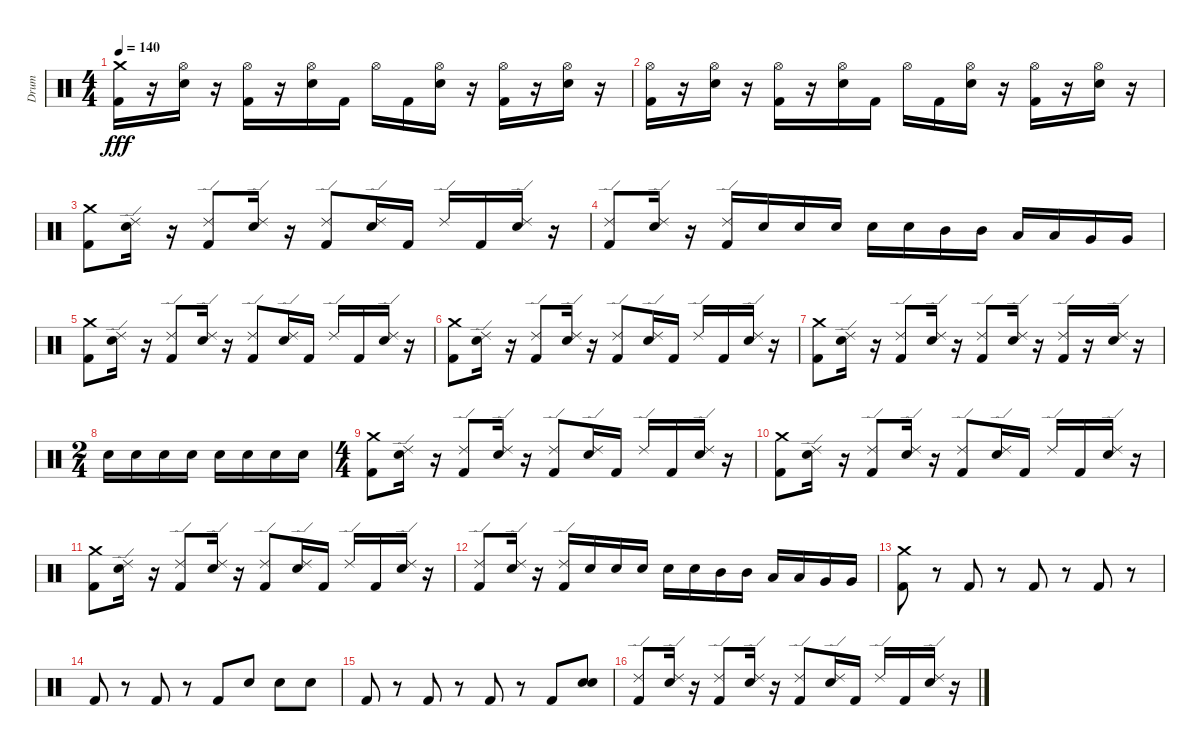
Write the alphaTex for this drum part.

\track ("Drum" "Drum") {instrument percussion}
\staff {score}
\articulation defaults
\ts (4 4)
\tempo 140
\clef neutral
\ks c
("Kick (hit) 2" "Crash medium (hit)").16{dy fff} r.16 ("Hi-Hat (open)" "Snare (hit) 2").16 r.16 ("Hi-Hat (open)" "Kick (hit) 2").16 r.16 ("Hi-Hat (open)" "Snare (hit) 2").16 "Kick (hit) 2".16 "Hi-Hat (open)".16 "Kick (hit) 2".16 ("Hi-Hat (open)" "Snare (hit) 2").16 r.16 ("Hi-Hat (open)" "Kick (hit) 2").16 r.16 ("Hi-Hat (open)" "Snare (hit) 2").16 r.16 |
("Hi-Hat (open)" "Kick (hit) 2").16 r.16 ("Hi-Hat (open)" "Snare (hit) 2").16 r.16 ("Hi-Hat (open)" "Kick (hit) 2").16 r.16 ("Hi-Hat (open)" "Snare (hit) 2").16 "Kick (hit) 2".16 "Hi-Hat (open)".16 "Kick (hit) 2".16 ("Hi-Hat (open)" "Snare (hit) 2").16 r.16 ("Hi-Hat (open)" "Kick (hit) 2").16 r.16 ("Hi-Hat (open)" "Snare (hit) 2").16 r.16 |
("Kick (hit) 2" "Crash medium (hit)").8 ("Snare (hit) 2" "Ride (edge) 2").16 r.16 ("Kick (hit) 2" "Ride (edge) 2").8 ("Snare (hit) 2" "Ride (edge) 2").16 r.16 ("Kick (hit) 2" "Ride (edge) 2").8 ("Snare (hit) 2" "Ride (edge) 2").16 "Kick (hit) 2".16 "Ride (edge) 2".16 "Kick (hit) 2".16 ("Snare (hit) 2" "Ride (edge) 2").16 r.16 |
("Kick (hit) 2" "Ride (edge) 2").8 ("Snare (hit) 2" "Ride (edge) 2").16 r.16 ("Kick (hit) 2" "Ride (edge) 2").16 "Snare (hit) 2".16 "Snare (hit) 2".16 "Snare (hit) 2".16 "Snare (hit) 2".16 "Snare (hit) 2".16 "Mid Tom (hit)".16 "Mid Tom (hit)".16 "Low Tom (hit)".16 "Low Tom (hit)".16 "Very Low Tom (hit)".16 "Very Low Tom (hit)".16 |
("Kick (hit) 2" "Crash medium (hit)").8 ("Snare (hit) 2" "Ride (edge) 2").16 r.16 ("Kick (hit) 2" "Ride (edge) 2").8 ("Snare (hit) 2" "Ride (edge) 2").16 r.16 ("Kick (hit) 2" "Ride (edge) 2").8 ("Snare (hit) 2" "Ride (edge) 2").16 "Kick (hit) 2".16 "Ride (edge) 2".16 "Kick (hit) 2".16 ("Snare (hit) 2" "Ride (edge) 2").16 r.16 |
("Kick (hit) 2" "Crash medium (hit)").8 ("Snare (hit) 2" "Ride (edge) 2").16 r.16 ("Kick (hit) 2" "Ride (edge) 2").8 ("Snare (hit) 2" "Ride (edge) 2").16 r.16 ("Kick (hit) 2" "Ride (edge) 2").8 ("Snare (hit) 2" "Ride (edge) 2").16 "Kick (hit) 2".16 "Ride (edge) 2".16 "Kick (hit) 2".16 ("Snare (hit) 2" "Ride (edge) 2").16 r.16 |
("Kick (hit) 2" "Crash medium (hit)").8 ("Snare (hit) 2" "Ride (edge) 2").16 r.16 ("Kick (hit) 2" "Ride (edge) 2").8 ("Snare (hit) 2" "Ride (edge) 2").16 r.16 ("Kick (hit) 2" "Ride (edge) 2").8 ("Snare (hit) 2" "Ride (edge) 2").16 r.16 ("Ride (edge) 2" "Kick (hit) 2").16 r.16 ("Snare (hit) 2" "Ride (edge) 2").16 r.16 |
\ts (2 4)
"Snare (hit) 2".16 "Snare (hit) 2".16 "Snare (hit) 2".16 "Snare (hit) 2".16 "Snare (hit) 2".16 "Snare (hit) 2".16 "Snare (hit) 2".16 "Snare (hit) 2".16 |
\ts (4 4)
("Kick (hit) 2" "Crash medium (hit)").8 ("Snare (hit) 2" "Ride (edge) 2").16 r.16 ("Kick (hit) 2" "Ride (edge) 2").8 ("Snare (hit) 2" "Ride (edge) 2").16 r.16 ("Kick (hit) 2" "Ride (edge) 2").8 ("Snare (hit) 2" "Ride (edge) 2").16 "Kick (hit) 2".16 "Ride (edge) 2".16 "Kick (hit) 2".16 ("Snare (hit) 2" "Ride (edge) 2").16 r.16 |
("Kick (hit) 2" "Crash medium (hit)").8 ("Snare (hit) 2" "Ride (edge) 2").16 r.16 ("Kick (hit) 2" "Ride (edge) 2").8 ("Snare (hit) 2" "Ride (edge) 2").16 r.16 ("Kick (hit) 2" "Ride (edge) 2").8 ("Snare (hit) 2" "Ride (edge) 2").16 "Kick (hit) 2".16 "Ride (edge) 2".16 "Kick (hit) 2".16 ("Snare (hit) 2" "Ride (edge) 2").16 r.16 |
("Kick (hit) 2" "Crash medium (hit)").8 ("Snare (hit) 2" "Ride (edge) 2").16 r.16 ("Kick (hit) 2" "Ride (edge) 2").8 ("Snare (hit) 2" "Ride (edge) 2").16 r.16 ("Kick (hit) 2" "Ride (edge) 2").8 ("Snare (hit) 2" "Ride (edge) 2").16 "Kick (hit) 2".16 "Ride (edge) 2".16 "Kick (hit) 2".16 ("Snare (hit) 2" "Ride (edge) 2").16 r.16 |
("Kick (hit) 2" "Ride (edge) 2").8 ("Snare (hit) 2" "Ride (edge) 2").16 r.16 ("Kick (hit) 2" "Ride (edge) 2").16 "Snare (hit) 2".16 "Snare (hit) 2".16 "Snare (hit) 2".16 "Snare (hit) 2".16 "Snare (hit) 2".16 "Mid Tom (hit)".16 "Mid Tom (hit)".16 "Low Tom (hit)".16 "Low Tom (hit)".16 "Very Low Tom (hit)".16 "Very Low Tom (hit)".16 |
("Kick (hit) 2" "Crash medium (hit)").8 r.8 "Kick (hit) 2".8 r.8 "Kick (hit) 2".8 r.8 "Kick (hit) 2".8 r.8 |
"Kick (hit) 2".8 r.8 "Kick (hit) 2".8 r.8 "Kick (hit) 2".8 "Snare (hit) 2".8 "Snare (hit) 2".8 "Snare (hit) 2".8 |
"Kick (hit) 2".8 r.8 "Kick (hit) 2".8 r.8 "Kick (hit) 2".8 r.8 "Kick (hit) 2".8 ("Snare (hit) 2" "Snare (hit) 2").8 |
("Kick (hit) 2" "Ride (edge) 2").8 ("Snare (hit) 2" "Ride (edge) 2").16 r.16 ("Kick (hit) 2" "Ride (edge) 2").8 ("Snare (hit) 2" "Ride (edge) 2").16 r.16 ("Kick (hit) 2" "Ride (edge) 2").8 ("Snare (hit) 2" "Ride (edge) 2").16 "Kick (hit) 2".16 "Ride (edge) 2".16 "Kick (hit) 2".16 ("Snare (hit) 2" "Ride (edge) 2").16 r.16
